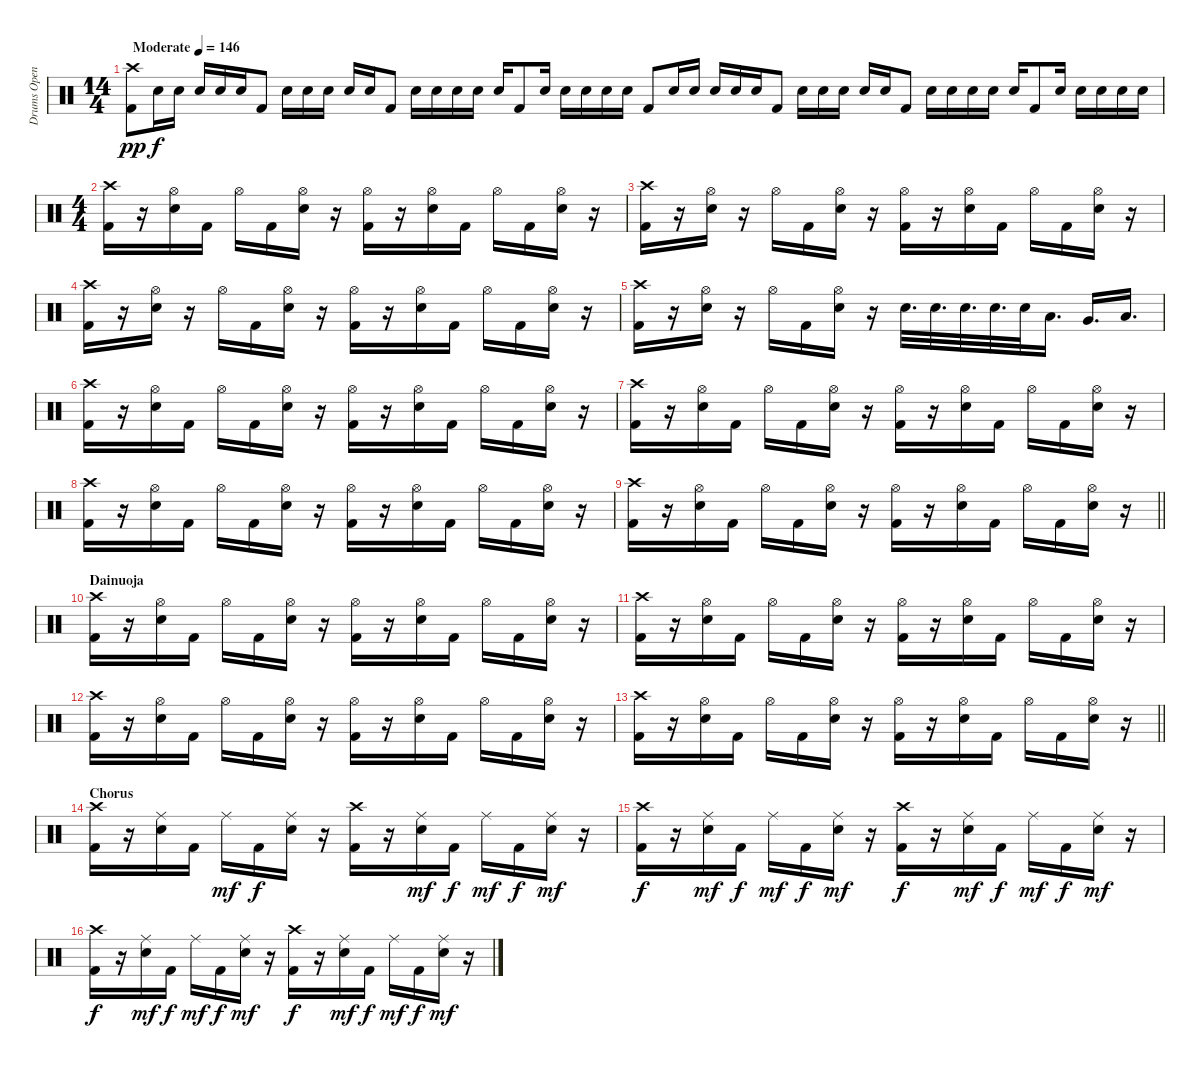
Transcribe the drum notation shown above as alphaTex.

\track ("Drums Open HH" "Drums Open") {instrument percussion}
\staff {score}
\articulation defaults
\ts (14 4)
\tempo (146 "Moderate")
\clef neutral
\ks c
("Crash high (hit)" "Kick (hit) 2").8{dy pp} "Snare (hit) 2".16{dy f} "Snare (hit) 2".16 "Snare (hit) 2".16 "Snare (hit) 2".16 "Snare (hit) 2".16 "Kick (hit) 2".8 "Snare (hit) 2".16 "Snare (hit) 2".16 "Snare (hit) 2".16 "Snare (hit) 2".16 "Snare (hit) 2".16 "Kick (hit) 2".8 "Snare (hit) 2".16 "Snare (hit) 2".16 "Snare (hit) 2".16 "Snare (hit) 2".16 "Snare (hit) 2".16 "Kick (hit) 2".8 "Snare (hit) 2".16 "Snare (hit) 2".16 "Snare (hit) 2".16 "Snare (hit) 2".16 "Snare (hit) 2".16 "Kick (hit) 2".8 "Snare (hit) 2".16 "Snare (hit) 2".16 "Snare (hit) 2".16 "Snare (hit) 2".16 "Snare (hit) 2".16 "Kick (hit) 2".8 "Snare (hit) 2".16 "Snare (hit) 2".16 "Snare (hit) 2".16 "Snare (hit) 2".16 "Snare (hit) 2".16 "Kick (hit) 2".8 "Snare (hit) 2".16 "Snare (hit) 2".16 "Snare (hit) 2".16 "Snare (hit) 2".16 "Snare (hit) 2".16 "Kick (hit) 2".8 "Snare (hit) 2".16 "Snare (hit) 2".16 "Snare (hit) 2".16 "Snare (hit) 2".16 "Snare (hit) 2".16 |
\ts (4 4)
("Crash high (hit)" "Kick (hit) 2").16 r.16 ("Hi-Hat (open)" "Snare (hit) 2").16 "Kick (hit) 2".16 "Hi-Hat (open)".16 "Kick (hit) 2".16 ("Hi-Hat (open)" "Snare (hit) 2").16 r.16 ("Hi-Hat (open)" "Kick (hit) 2").16 r.16 ("Hi-Hat (open)" "Snare (hit) 2").16 "Kick (hit) 2".16 "Hi-Hat (open)".16 "Kick (hit) 2".16 ("Hi-Hat (open)" "Snare (hit) 2").16 r.16 |
("Crash high (hit)" "Kick (hit) 2").16 r.16 ("Hi-Hat (open)" "Snare (hit) 2").16 r.16 "Hi-Hat (open)".16 "Kick (hit) 2".16 ("Hi-Hat (open)" "Snare (hit) 2").16 r.16 ("Hi-Hat (open)" "Kick (hit) 2").16 r.16 ("Hi-Hat (open)" "Snare (hit) 2").16 "Kick (hit) 2".16 "Hi-Hat (open)".16 "Kick (hit) 2".16 ("Hi-Hat (open)" "Snare (hit) 2").16 r.16 |
("Crash high (hit)" "Kick (hit) 2").16 r.16 ("Hi-Hat (open)" "Snare (hit) 2").16 r.16 "Hi-Hat (open)".16 "Kick (hit) 2".16 ("Hi-Hat (open)" "Snare (hit) 2").16 r.16 ("Hi-Hat (open)" "Kick (hit) 2").16 r.16 ("Hi-Hat (open)" "Snare (hit) 2").16 "Kick (hit) 2".16 "Hi-Hat (open)".16 "Kick (hit) 2".16 ("Hi-Hat (open)" "Snare (hit) 2").16 r.16 |
("Crash high (hit)" "Kick (hit) 2").16 r.16 ("Hi-Hat (open)" "Snare (hit) 2").16 r.16 "Hi-Hat (open)".16 "Kick (hit) 2".16 ("Hi-Hat (open)" "Snare (hit) 2").16 r.16 "Snare (hit) 2".32{d} "Snare (hit) 2".32{d} "Snare (hit) 2".32{d} "Snare (hit) 2".32{d} "Snare (hit) 2".32 "Low Tom (hit)".16{d} "Very Low Tom (hit)".16{d} "Low Floor Tom (hit)".16{d} |
("Crash high (hit)" "Kick (hit) 2").16 r.16 ("Hi-Hat (open)" "Snare (hit) 2").16 "Kick (hit) 2".16 "Hi-Hat (open)".16 "Kick (hit) 2".16 ("Hi-Hat (open)" "Snare (hit) 2").16 r.16 ("Hi-Hat (open)" "Kick (hit) 2").16 r.16 ("Hi-Hat (open)" "Snare (hit) 2").16 "Kick (hit) 2".16 "Hi-Hat (open)".16 "Kick (hit) 2".16 ("Hi-Hat (open)" "Snare (hit) 2").16 r.16 |
("Crash high (hit)" "Kick (hit) 2").16 r.16 ("Hi-Hat (open)" "Snare (hit) 2").16 "Kick (hit) 2".16 "Hi-Hat (open)".16 "Kick (hit) 2".16 ("Hi-Hat (open)" "Snare (hit) 2").16 r.16 ("Hi-Hat (open)" "Kick (hit) 2").16 r.16 ("Hi-Hat (open)" "Snare (hit) 2").16 "Kick (hit) 2".16 "Hi-Hat (open)".16 "Kick (hit) 2".16 ("Hi-Hat (open)" "Snare (hit) 2").16 r.16 |
("Crash high (hit)" "Kick (hit) 2").16 r.16 ("Hi-Hat (open)" "Snare (hit) 2").16 "Kick (hit) 2".16 "Hi-Hat (open)".16 "Kick (hit) 2".16 ("Hi-Hat (open)" "Snare (hit) 2").16 r.16 ("Hi-Hat (open)" "Kick (hit) 2").16 r.16 ("Hi-Hat (open)" "Snare (hit) 2").16 "Kick (hit) 2".16 "Hi-Hat (open)".16 "Kick (hit) 2".16 ("Hi-Hat (open)" "Snare (hit) 2").16 r.16 |
\barLineRight lightlight
("Crash high (hit)" "Kick (hit) 2").16 r.16 ("Hi-Hat (open)" "Snare (hit) 2").16 "Kick (hit) 2".16 "Hi-Hat (open)".16 "Kick (hit) 2".16 ("Hi-Hat (open)" "Snare (hit) 2").16 r.16 ("Hi-Hat (open)" "Kick (hit) 2").16 r.16 ("Hi-Hat (open)" "Snare (hit) 2").16 "Kick (hit) 2".16 "Hi-Hat (open)".16 "Kick (hit) 2".16 ("Hi-Hat (open)" "Snare (hit) 2").16 r.16 |
\section ("" "Dainuoja")
("Crash high (hit)" "Kick (hit) 2").16 r.16 ("Hi-Hat (open)" "Snare (hit) 2").16 "Kick (hit) 2".16 "Hi-Hat (open)".16 "Kick (hit) 2".16 ("Hi-Hat (open)" "Snare (hit) 2").16 r.16 ("Hi-Hat (open)" "Kick (hit) 2").16 r.16 ("Hi-Hat (open)" "Snare (hit) 2").16 "Kick (hit) 2".16 "Hi-Hat (open)".16 "Kick (hit) 2".16 ("Hi-Hat (open)" "Snare (hit) 2").16 r.16 |
("Crash high (hit)" "Kick (hit) 2").16 r.16 ("Hi-Hat (open)" "Snare (hit) 2").16 "Kick (hit) 2".16 "Hi-Hat (open)".16 "Kick (hit) 2".16 ("Hi-Hat (open)" "Snare (hit) 2").16 r.16 ("Hi-Hat (open)" "Kick (hit) 2").16 r.16 ("Hi-Hat (open)" "Snare (hit) 2").16 "Kick (hit) 2".16 "Hi-Hat (open)".16 "Kick (hit) 2".16 ("Hi-Hat (open)" "Snare (hit) 2").16 r.16 |
("Crash high (hit)" "Kick (hit) 2").16 r.16 ("Hi-Hat (open)" "Snare (hit) 2").16 "Kick (hit) 2".16 "Hi-Hat (open)".16 "Kick (hit) 2".16 ("Hi-Hat (open)" "Snare (hit) 2").16 r.16 ("Hi-Hat (open)" "Kick (hit) 2").16 r.16 ("Hi-Hat (open)" "Snare (hit) 2").16 "Kick (hit) 2".16 "Hi-Hat (open)".16 "Kick (hit) 2".16 ("Hi-Hat (open)" "Snare (hit) 2").16 r.16 |
\barLineRight lightlight
("Crash high (hit)" "Kick (hit) 2").16 r.16 ("Hi-Hat (open)" "Snare (hit) 2").16 "Kick (hit) 2".16 "Hi-Hat (open)".16 "Kick (hit) 2".16 ("Hi-Hat (open)" "Snare (hit) 2").16 r.16 ("Hi-Hat (open)" "Kick (hit) 2").16 r.16 ("Hi-Hat (open)" "Snare (hit) 2").16 "Kick (hit) 2".16 "Hi-Hat (open)".16 "Kick (hit) 2".16 ("Hi-Hat (open)" "Snare (hit) 2").16 r.16 |
\section ("" "Chorus")
("Crash high (hit)" "Kick (hit) 2").16 r.16 ("Ride (middle)" "Snare (hit) 2").16 "Kick (hit) 2".16 "Ride (middle)".16{dy mf} "Kick (hit) 2".16{dy f} ("Ride (middle)" "Snare (hit) 2").16 r.16 ("Crash high (hit)" "Kick (hit) 2").16 r.16 ("Ride (middle)" "Snare (hit) 2").16{dy mf} "Kick (hit) 2".16{dy f} "Ride (middle)".16{dy mf} "Kick (hit) 2".16{dy f} ("Ride (middle)" "Snare (hit) 2").16{dy mf} r.16 |
("Crash high (hit)" "Kick (hit) 2").16{dy f} r.16 ("Ride (middle)" "Snare (hit) 2").16{dy mf} "Kick (hit) 2".16{dy f} "Ride (middle)".16{dy mf} "Kick (hit) 2".16{dy f} ("Ride (middle)" "Snare (hit) 2").16{dy mf} r.16 ("Crash high (hit)" "Kick (hit) 2").16{dy f} r.16 ("Ride (middle)" "Snare (hit) 2").16{dy mf} "Kick (hit) 2".16{dy f} "Ride (middle)".16{dy mf} "Kick (hit) 2".16{dy f} ("Ride (middle)" "Snare (hit) 2").16{dy mf} r.16 |
("Crash high (hit)" "Kick (hit) 2").16{dy f} r.16 ("Ride (middle)" "Snare (hit) 2").16{dy mf} "Kick (hit) 2".16{dy f} "Ride (middle)".16{dy mf} "Kick (hit) 2".16{dy f} ("Ride (middle)" "Snare (hit) 2").16{dy mf} r.16 ("Crash high (hit)" "Kick (hit) 2").16{dy f} r.16 ("Ride (middle)" "Snare (hit) 2").16{dy mf} "Kick (hit) 2".16{dy f} "Ride (middle)".16{dy mf} "Kick (hit) 2".16{dy f} ("Ride (middle)" "Snare (hit) 2").16{dy mf} r.16
